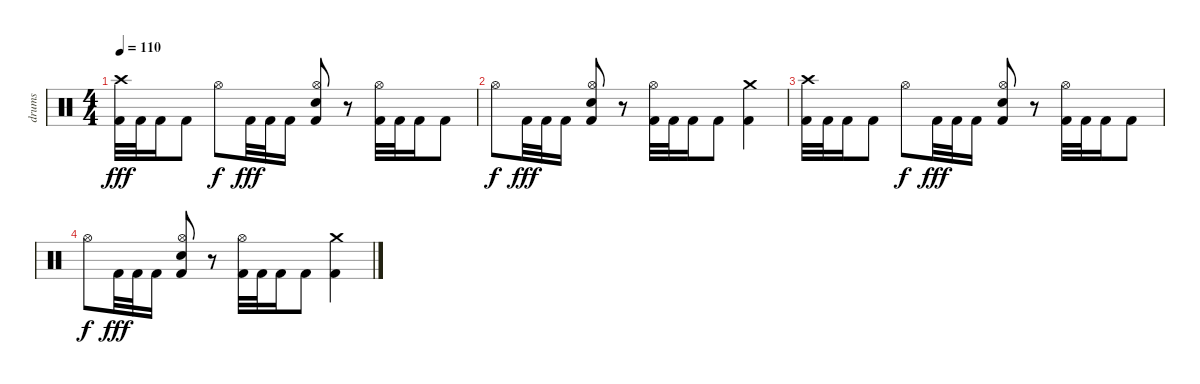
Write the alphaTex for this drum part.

\track ("drums" "drums") {instrument percussion}
\staff {score}
\articulation defaults
\ts (4 4)
\tempo 110
\clef neutral
\ks c
("Crash high (hit)" "Kick (hit) 2").32{dy fff} "Kick (hit) 2".32 "Kick (hit) 2".16 "Kick (hit) 2".8 "Hi-Hat (open)".8{dy f} "Kick (hit) 2".32{dy fff} "Kick (hit) 2".32 "Kick (hit) 2".16 ("Hi-Hat (open)" "Snare (hit) 2" "Kick (hit) 2").8 r.8 ("Hi-Hat (open)" "Kick (hit) 2").32 "Kick (hit) 2".32 "Kick (hit) 2".16 "Kick (hit) 2".8 |
"Hi-Hat (open)".8{dy f} "Kick (hit) 2".32{dy fff} "Kick (hit) 2".32 "Kick (hit) 2".16 ("Hi-Hat (open)" "Snare (hit) 2" "Kick (hit) 2").8 r.8 ("Hi-Hat (open)" "Kick (hit) 2").32 "Kick (hit) 2".32 "Kick (hit) 2".16 "Kick (hit) 2".8 ("Crash medium (hit)" "Kick (hit) 2").4 |
("Crash high (hit)" "Kick (hit) 2").32 "Kick (hit) 2".32 "Kick (hit) 2".16 "Kick (hit) 2".8 "Hi-Hat (open)".8{dy f} "Kick (hit) 2".32{dy fff} "Kick (hit) 2".32 "Kick (hit) 2".16 ("Hi-Hat (open)" "Snare (hit) 2" "Kick (hit) 2").8 r.8 ("Hi-Hat (open)" "Kick (hit) 2").32 "Kick (hit) 2".32 "Kick (hit) 2".16 "Kick (hit) 2".8 |
"Hi-Hat (open)".8{dy f} "Kick (hit) 2".32{dy fff} "Kick (hit) 2".32 "Kick (hit) 2".16 ("Hi-Hat (open)" "Snare (hit) 2" "Kick (hit) 2").8 r.8 ("Hi-Hat (open)" "Kick (hit) 2").32 "Kick (hit) 2".32 "Kick (hit) 2".16 "Kick (hit) 2".8 ("Crash medium (hit)" "Kick (hit) 2").4
